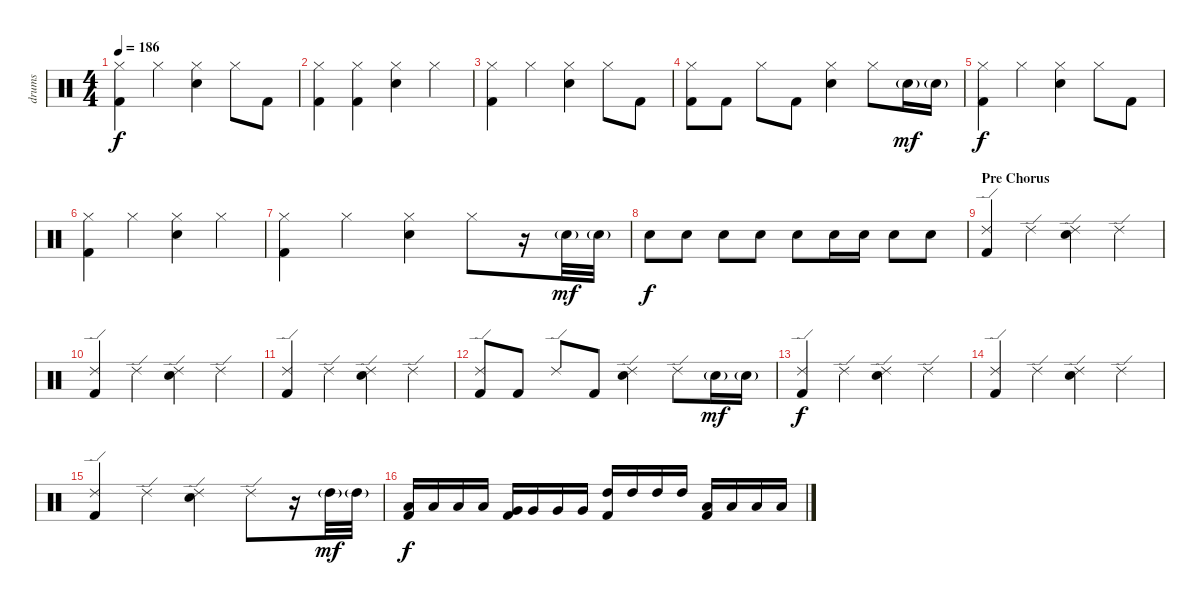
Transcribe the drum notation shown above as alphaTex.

\track ("drums" "drums") {instrument percussion}
\staff {score}
\articulation defaults
\ts (4 4)
\tempo 186
\clef neutral
\ks c
("Hi-Hat (closed)" "Kick (hit) 2").4{dy f} "Hi-Hat (closed)".4 ("Hi-Hat (closed)" "Electric Snare (hit)").4 "Hi-Hat (closed)".8 "Kick (hit) 2".8 |
("Hi-Hat (closed)" "Kick (hit) 2").4 ("Hi-Hat (closed)" "Kick (hit) 2").4 ("Hi-Hat (closed)" "Electric Snare (hit)").4 "Hi-Hat (closed)".4 |
("Hi-Hat (closed)" "Kick (hit) 2").4 "Hi-Hat (closed)".4 ("Hi-Hat (closed)" "Electric Snare (hit)").4 "Hi-Hat (closed)".8 "Kick (hit) 2".8 |
("Hi-Hat (closed)" "Kick (hit) 2").8 "Kick (hit) 2".8 "Hi-Hat (closed)".8 "Kick (hit) 2".8 ("Hi-Hat (closed)" "Electric Snare (hit)").4 "Hi-Hat (closed)".8 "Electric Snare (hit)"{g}.16{dy mf} "Electric Snare (hit)"{g}.16 |
("Hi-Hat (closed)" "Kick (hit) 2").4{dy f} "Hi-Hat (closed)".4 ("Hi-Hat (closed)" "Electric Snare (hit)").4 "Hi-Hat (closed)".8 "Kick (hit) 2".8 |
("Hi-Hat (closed)" "Kick (hit) 2").4 "Hi-Hat (closed)".4 ("Hi-Hat (closed)" "Electric Snare (hit)").4 "Hi-Hat (closed)".4 |
("Hi-Hat (closed)" "Kick (hit) 2").4 "Hi-Hat (closed)".4 ("Hi-Hat (closed)" "Electric Snare (hit)").4 "Hi-Hat (closed)".8 r.16 "Electric Snare (hit)"{g}.32{dy mf} "Electric Snare (hit)"{g}.32 |
"Electric Snare (hit)".8{dy f} "Electric Snare (hit)".8 "Electric Snare (hit)".8 "Electric Snare (hit)".8 "Electric Snare (hit)".8 "Electric Snare (hit)".16 "Electric Snare (hit)".16 "Electric Snare (hit)".8 "Electric Snare (hit)".8 |
\section ("" "Pre Chorus")
("Ride (edge) 2" "Kick (hit) 2").4 "Ride (edge) 2".4 ("Ride (edge) 2" "Electric Snare (hit)").4 "Ride (edge) 2".4 |
("Ride (edge) 2" "Kick (hit) 2").4 "Ride (edge) 2".4 ("Ride (edge) 2" "Electric Snare (hit)").4 "Ride (edge) 2".4 |
("Ride (edge) 2" "Kick (hit) 2").4 "Ride (edge) 2".4 ("Ride (edge) 2" "Electric Snare (hit)").4 "Ride (edge) 2".4 |
("Ride (edge) 2" "Kick (hit) 2").8 "Kick (hit) 2".8 "Ride (edge) 2".8 "Kick (hit) 2".8 ("Ride (edge) 2" "Electric Snare (hit)").4 "Ride (edge) 2".8 "Electric Snare (hit)"{g}.16{dy mf} "Electric Snare (hit)"{g}.16 |
("Ride (edge) 2" "Kick (hit) 2").4{dy f} "Ride (edge) 2".4 ("Ride (edge) 2" "Electric Snare (hit)").4 "Ride (edge) 2".4 |
("Ride (edge) 2" "Kick (hit) 2").4 "Ride (edge) 2".4 ("Ride (edge) 2" "Electric Snare (hit)").4 "Ride (edge) 2".4 |
("Ride (edge) 2" "Kick (hit) 2").4 "Ride (edge) 2".4 ("Ride (edge) 2" "Electric Snare (hit)").4 "Ride (edge) 2".8 r.16 "High Tom (hit)"{g}.32{dy mf} "High Tom (hit)"{g}.32 |
("Low Tom (hit)" "Kick (hit) 2").16{dy f} "Low Tom (hit)".16 "Low Tom (hit)".16 "Low Tom (hit)".16 ("Very Low Tom (hit)" "Kick (hit) 2").16 "Very Low Tom (hit)".16 "Very Low Tom (hit)".16 "Very Low Tom (hit)".16 ("High Tom (hit)" "Kick (hit) 2").16 "High Tom (hit)".16 "High Tom (hit)".16 "High Tom (hit)".16 ("Low Tom (hit)" "Kick (hit) 2").16 "Low Tom (hit)".16 "Low Tom (hit)".16 "Low Tom (hit)".16
